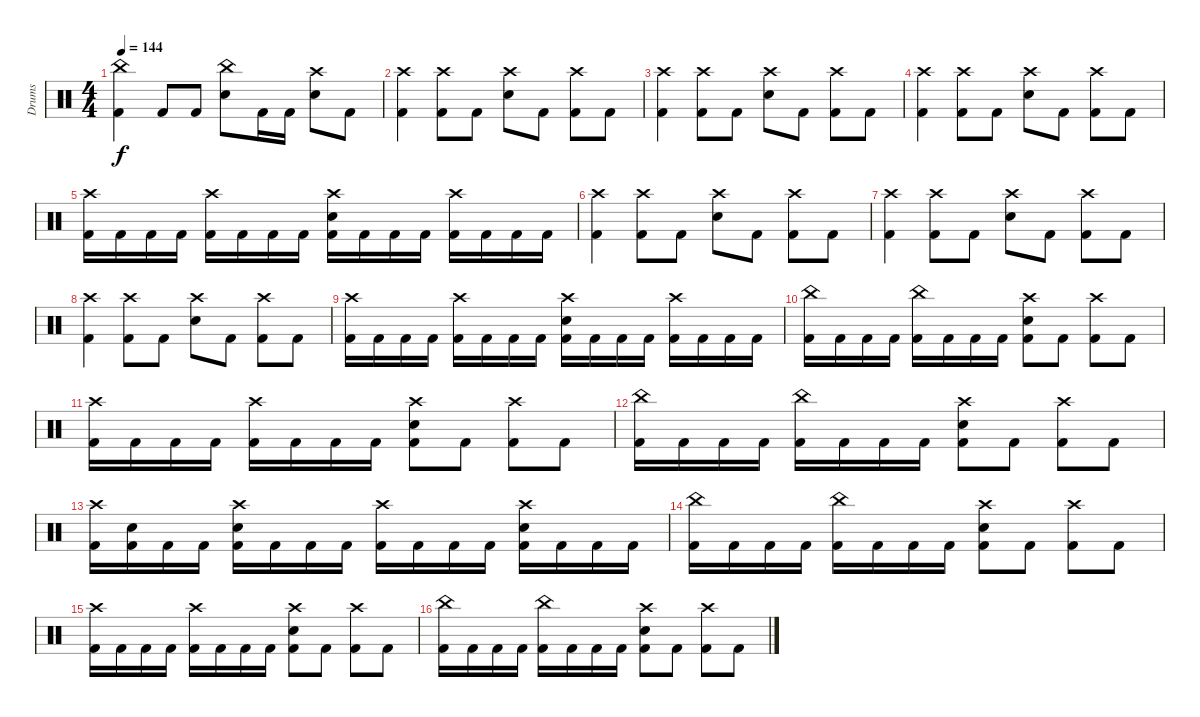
\track ("Drums" "Drums") {instrument percussion}
\staff {score}
\articulation defaults
\ts (4 4)
\tempo 144
\clef neutral
\ks c
("Kick (hit) 2" "China (hit)").4{dy f} "Kick (hit) 2".8 "Kick (hit) 2".8 ("China (hit)" "Snare (hit) 2").8 "Kick (hit) 2".16 "Kick (hit) 2".16 ("Crash high (hit)" "Snare (hit) 2").8 "Kick (hit) 2".8 |
("Crash high (hit)" "Kick (hit) 2").4 ("Crash high (hit)" "Kick (hit) 2").8 "Kick (hit) 2".8 ("Crash high (hit)" "Snare (hit) 2").8 "Kick (hit) 2".8 ("Crash high (hit)" "Kick (hit) 2").8 "Kick (hit) 2".8 |
("Crash high (hit)" "Kick (hit) 2").4 ("Crash high (hit)" "Kick (hit) 2").8 "Kick (hit) 2".8 ("Crash high (hit)" "Snare (hit) 2").8 "Kick (hit) 2".8 ("Crash high (hit)" "Kick (hit) 2").8 "Kick (hit) 2".8 |
("Crash high (hit)" "Kick (hit) 2").4 ("Crash high (hit)" "Kick (hit) 2").8 "Kick (hit) 2".8 ("Crash high (hit)" "Snare (hit) 2").8 "Kick (hit) 2".8 ("Crash high (hit)" "Kick (hit) 2").8 "Kick (hit) 2".8 |
("Crash high (hit)" "Kick (hit) 2").16 "Kick (hit) 2".16 "Kick (hit) 2".16 "Kick (hit) 2".16 ("Crash high (hit)" "Kick (hit) 2").16 "Kick (hit) 2".16 "Kick (hit) 2".16 "Kick (hit) 2".16 ("Snare (hit) 2" "Crash high (hit)" "Kick (hit) 2").16 "Kick (hit) 2".16 "Kick (hit) 2".16 "Kick (hit) 2".16 ("Crash high (hit)" "Kick (hit) 2").16 "Kick (hit) 2".16 "Kick (hit) 2".16 "Kick (hit) 2".16 |
("Crash high (hit)" "Kick (hit) 2").4 ("Crash high (hit)" "Kick (hit) 2").8 "Kick (hit) 2".8 ("Crash high (hit)" "Snare (hit) 2").8 "Kick (hit) 2".8 ("Crash high (hit)" "Kick (hit) 2").8 "Kick (hit) 2".8 |
("Crash high (hit)" "Kick (hit) 2").4 ("Crash high (hit)" "Kick (hit) 2").8 "Kick (hit) 2".8 ("Crash high (hit)" "Snare (hit) 2").8 "Kick (hit) 2".8 ("Crash high (hit)" "Kick (hit) 2").8 "Kick (hit) 2".8 |
("Crash high (hit)" "Kick (hit) 2").4 ("Crash high (hit)" "Kick (hit) 2").8 "Kick (hit) 2".8 ("Crash high (hit)" "Snare (hit) 2").8 "Kick (hit) 2".8 ("Crash high (hit)" "Kick (hit) 2").8 "Kick (hit) 2".8 |
("Crash high (hit)" "Kick (hit) 2").16 "Kick (hit) 2".16 "Kick (hit) 2".16 "Kick (hit) 2".16 ("Crash high (hit)" "Kick (hit) 2").16 "Kick (hit) 2".16 "Kick (hit) 2".16 "Kick (hit) 2".16 ("Snare (hit) 2" "Crash high (hit)" "Kick (hit) 2").16 "Kick (hit) 2".16 "Kick (hit) 2".16 "Kick (hit) 2".16 ("Crash high (hit)" "Kick (hit) 2").16 "Kick (hit) 2".16 "Kick (hit) 2".16 "Kick (hit) 2".16 |
("China (hit)" "Kick (hit) 2").16 "Kick (hit) 2".16 "Kick (hit) 2".16 "Kick (hit) 2".16 ("China (hit)" "Kick (hit) 2").16 "Kick (hit) 2".16 "Kick (hit) 2".16 "Kick (hit) 2".16 ("Snare (hit) 2" "Crash high (hit)" "Kick (hit) 2").8 "Kick (hit) 2".8 ("Crash high (hit)" "Kick (hit) 2").8 "Kick (hit) 2".8 |
("Crash high (hit)" "Kick (hit) 2").16 "Kick (hit) 2".16 "Kick (hit) 2".16 "Kick (hit) 2".16 ("Crash high (hit)" "Kick (hit) 2").16 "Kick (hit) 2".16 "Kick (hit) 2".16 "Kick (hit) 2".16 ("Snare (hit) 2" "Crash high (hit)" "Kick (hit) 2").8 "Kick (hit) 2".8 ("Crash high (hit)" "Kick (hit) 2").8 "Kick (hit) 2".8 |
("China (hit)" "Kick (hit) 2").16 "Kick (hit) 2".16 "Kick (hit) 2".16 "Kick (hit) 2".16 ("China (hit)" "Kick (hit) 2").16 "Kick (hit) 2".16 "Kick (hit) 2".16 "Kick (hit) 2".16 ("Snare (hit) 2" "Crash high (hit)" "Kick (hit) 2").8 "Kick (hit) 2".8 ("Crash high (hit)" "Kick (hit) 2").8 "Kick (hit) 2".8 |
("Crash high (hit)" "Kick (hit) 2").16 ("Snare (hit) 2" "Kick (hit) 2").16 "Kick (hit) 2".16 "Kick (hit) 2".16 ("Crash high (hit)" "Snare (hit) 2" "Kick (hit) 2").16 "Kick (hit) 2".16 "Kick (hit) 2".16 "Kick (hit) 2".16 ("Crash high (hit)" "Kick (hit) 2").16 "Kick (hit) 2".16 "Kick (hit) 2".16 "Kick (hit) 2".16 ("Crash high (hit)" "Snare (hit) 2" "Kick (hit) 2").16 "Kick (hit) 2".16 "Kick (hit) 2".16 "Kick (hit) 2".16 |
("China (hit)" "Kick (hit) 2").16 "Kick (hit) 2".16 "Kick (hit) 2".16 "Kick (hit) 2".16 ("China (hit)" "Kick (hit) 2").16 "Kick (hit) 2".16 "Kick (hit) 2".16 "Kick (hit) 2".16 ("Snare (hit) 2" "Crash high (hit)" "Kick (hit) 2").8 "Kick (hit) 2".8 ("Crash high (hit)" "Kick (hit) 2").8 "Kick (hit) 2".8 |
("Crash high (hit)" "Kick (hit) 2").16 "Kick (hit) 2".16 "Kick (hit) 2".16 "Kick (hit) 2".16 ("Crash high (hit)" "Kick (hit) 2").16 "Kick (hit) 2".16 "Kick (hit) 2".16 "Kick (hit) 2".16 ("Snare (hit) 2" "Crash high (hit)" "Kick (hit) 2").8 "Kick (hit) 2".8 ("Crash high (hit)" "Kick (hit) 2").8 "Kick (hit) 2".8 |
("China (hit)" "Kick (hit) 2").16 "Kick (hit) 2".16 "Kick (hit) 2".16 "Kick (hit) 2".16 ("China (hit)" "Kick (hit) 2").16 "Kick (hit) 2".16 "Kick (hit) 2".16 "Kick (hit) 2".16 ("Snare (hit) 2" "Crash high (hit)" "Kick (hit) 2").8 "Kick (hit) 2".8 ("Crash high (hit)" "Kick (hit) 2").8 "Kick (hit) 2".8
